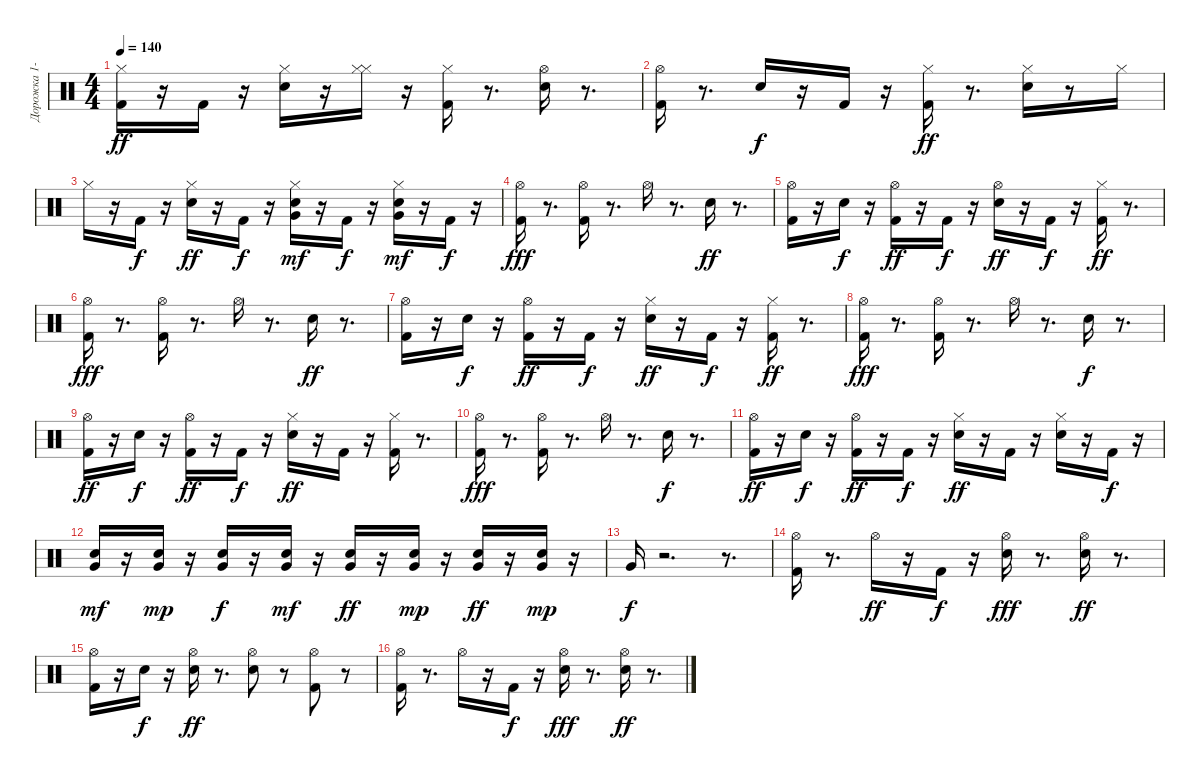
\track ("Дорожка 1-2" "Дорожка 1-") {instrument percussion}
\staff {score}
\articulation defaults
\ts (4 4)
\tempo 140
\clef neutral
\ks c
("Hi-Hat (closed)" "Kick (hit) 2").16{dy ff} r.16 "Kick (hit) 2".16 r.16 ("Hi-Hat (closed)" "Electric Snare (hit)").16 r.16 ("Hi-Hat (closed)" "Hi-Hat (closed)").16 r.16 ("Kick (hit) 2" "Hi-Hat (closed)").16 r.8{d} ("Hi-Hat (open)" "Electric Snare (hit)").16 r.8{d} |
("Kick (hit) 2" "Hi-Hat (open)").16 r.8{d} "Electric Snare (hit)".16{dy f} r.16 "Kick (hit) 2".16 r.16 ("Kick (hit) 2" "Hi-Hat (closed)").16{dy ff} r.8{d} ("Electric Snare (hit)" "Hi-Hat (closed)").16 r.8 "Hi-Hat (closed)".16 |
"Hi-Hat (closed)".16 r.16 "Kick (hit) 2".16{dy f} r.16 ("Electric Snare (hit)" "Hi-Hat (closed)").16{dy ff} r.16 "Kick (hit) 2".16{dy f} r.16 ("Hi-Hat (closed)" "Electric Snare (hit)" "Very Low Tom (hit)").16{dy mf} r.16 "Kick (hit) 2".16{dy f} r.16 ("Hi-Hat (closed)" "Electric Snare (hit)" "Very Low Tom (hit)").16{dy mf} r.16 "Kick (hit) 2".16{dy f} r.16 |
("Kick (hit) 2" "Hi-Hat (open)").16{dy fff} r.8{d} ("Kick (hit) 2" "Hi-Hat (open)").16 r.8{d} "Hi-Hat (open)".16 r.8{d} "Electric Snare (hit)".16{dy ff} r.8{d} |
("Kick (hit) 2" "Hi-Hat (open)").16 r.16 "Electric Snare (hit)".16{dy f} r.16 ("Kick (hit) 2" "Hi-Hat (open)").16{dy ff} r.16 "Kick (hit) 2".16{dy f} r.16 ("Electric Snare (hit)" "Hi-Hat (open)").16{dy ff} r.16 "Kick (hit) 2".16{dy f} r.16 ("Kick (hit) 2" "Hi-Hat (closed)").16{dy ff} r.8{d} |
("Kick (hit) 2" "Hi-Hat (open)").16{dy fff} r.8{d} ("Kick (hit) 2" "Hi-Hat (open)").16 r.8{d} "Hi-Hat (open)".16 r.8{d} "Electric Snare (hit)".16{dy ff} r.8{d} |
("Kick (hit) 2" "Hi-Hat (open)").16 r.16 "Electric Snare (hit)".16{dy f} r.16 ("Kick (hit) 2" "Hi-Hat (open)").16{dy ff} r.16 "Kick (hit) 2".16{dy f} r.16 ("Electric Snare (hit)" "Hi-Hat (closed)").16{dy ff} r.16 "Kick (hit) 2".16{dy f} r.16 ("Kick (hit) 2" "Hi-Hat (closed)").16{dy ff} r.8{d} |
("Kick (hit) 2" "Hi-Hat (open)").16{dy fff} r.8{d} ("Kick (hit) 2" "Hi-Hat (open)").16 r.8{d} "Hi-Hat (open)".16 r.8{d} "Electric Snare (hit)".16{dy f} r.8{d} |
("Kick (hit) 2" "Hi-Hat (open)").16{dy ff} r.16 "Electric Snare (hit)".16{dy f} r.16 ("Kick (hit) 2" "Hi-Hat (open)").16{dy ff} r.16 "Kick (hit) 2".16{dy f} r.16 ("Electric Snare (hit)" "Hi-Hat (closed)").16{dy ff} r.16 "Kick (hit) 2".16 r.16 ("Kick (hit) 2" "Hi-Hat (closed)").16 r.8{d} |
("Kick (hit) 2" "Hi-Hat (open)").16{dy fff} r.8{d} ("Kick (hit) 2" "Hi-Hat (open)").16 r.8{d} "Hi-Hat (open)".16 r.8{d} "Electric Snare (hit)".16{dy f} r.8{d} |
("Kick (hit) 2" "Hi-Hat (open)").16{dy ff} r.16 "Electric Snare (hit)".16{dy f} r.16 ("Kick (hit) 2" "Hi-Hat (open)").16{dy ff} r.16 "Kick (hit) 2".16{dy f} r.16 ("Electric Snare (hit)" "Hi-Hat (closed)").16{dy ff} r.16 "Kick (hit) 2".16 r.16 ("Electric Snare (hit)" "Hi-Hat (closed)").16 r.16 "Kick (hit) 2".16{dy f} r.16 |
("Electric Snare (hit)" "Very Low Tom (hit)").16{dy mf} r.16 ("Electric Snare (hit)" "Very Low Tom (hit)").16{dy mp} r.16 ("Electric Snare (hit)" "Very Low Tom (hit)").16{dy f} r.16 ("Electric Snare (hit)" "Very Low Tom (hit)").16{dy mf} r.16 ("Electric Snare (hit)" "Very Low Tom (hit)").16{dy ff} r.16 ("Electric Snare (hit)" "Very Low Tom (hit)").16{dy mp} r.16 ("Electric Snare (hit)" "Very Low Tom (hit)").16{dy ff} r.16 ("Electric Snare (hit)" "Very Low Tom (hit)").16{dy mp} r.16 |
"Very Low Tom (hit)".16{dy f} r.2{d} r.8{d} |
("Hi-Hat (open)" "Kick (hit) 2").16 r.8{d} "Hi-Hat (open)".16{dy ff} r.16 "Kick (hit) 2".16{dy f} r.16 ("Hi-Hat (open)" "Electric Snare (hit)").16{dy fff} r.8{d} ("Hi-Hat (open)" "Electric Snare (hit)").16{dy ff} r.8{d} |
("Hi-Hat (open)" "Kick (hit) 2").16 r.16 "Electric Snare (hit)".16{dy f} r.16 ("Hi-Hat (open)" "Electric Snare (hit)").16{dy ff} r.8{d} ("Hi-Hat (open)" "Electric Snare (hit)").8 r.8 ("Hi-Hat (open)" "Kick (hit) 2").8 r.8 |
("Hi-Hat (open)" "Kick (hit) 2").16 r.8{d} "Hi-Hat (open)".16 r.16 "Kick (hit) 2".16{dy f} r.16 ("Hi-Hat (open)" "Electric Snare (hit)").16{dy fff} r.8{d} ("Hi-Hat (open)" "Electric Snare (hit)").16{dy ff} r.8{d}
